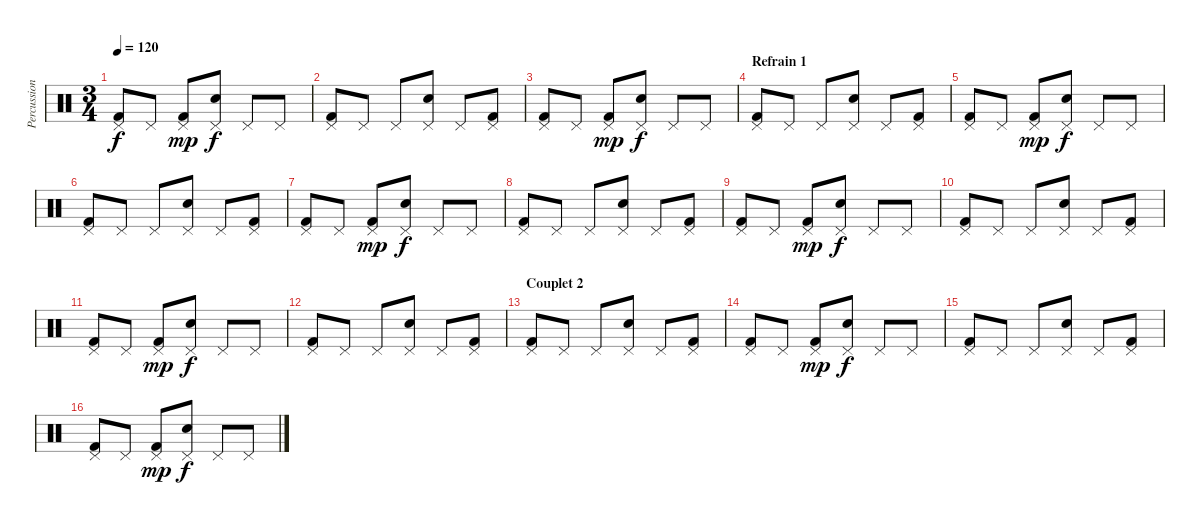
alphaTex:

\track ("Percussions" "Percussion") {instrument percussion}
\staff {score}
\articulation defaults
\ts (3 4)
\tempo 120
\clef neutral
\ks c
("Pedal Hi-Hat (hit)" "Kick (hit) 2").8{dy f} "Pedal Hi-Hat (hit)".8 ("Pedal Hi-Hat (hit)" "Kick (hit) 2").8{dy mp} ("Pedal Hi-Hat (hit)" "Electric Snare (hit)").8{dy f} "Pedal Hi-Hat (hit)".8 "Pedal Hi-Hat (hit)".8 |
("Pedal Hi-Hat (hit)" "Kick (hit) 2").8 "Pedal Hi-Hat (hit)".8 "Pedal Hi-Hat (hit)".8 ("Pedal Hi-Hat (hit)" "Electric Snare (hit)").8 "Pedal Hi-Hat (hit)".8 ("Pedal Hi-Hat (hit)" "Kick (hit) 2").8 |
("Pedal Hi-Hat (hit)" "Kick (hit) 2").8 "Pedal Hi-Hat (hit)".8 ("Pedal Hi-Hat (hit)" "Kick (hit) 2").8{dy mp} ("Pedal Hi-Hat (hit)" "Electric Snare (hit)").8{dy f} "Pedal Hi-Hat (hit)".8 "Pedal Hi-Hat (hit)".8 |
\section ("" "Refrain 1")
("Pedal Hi-Hat (hit)" "Kick (hit) 2").8 "Pedal Hi-Hat (hit)".8 "Pedal Hi-Hat (hit)".8 ("Pedal Hi-Hat (hit)" "Electric Snare (hit)").8 "Pedal Hi-Hat (hit)".8 ("Pedal Hi-Hat (hit)" "Kick (hit) 2").8 |
("Pedal Hi-Hat (hit)" "Kick (hit) 2").8 "Pedal Hi-Hat (hit)".8 ("Pedal Hi-Hat (hit)" "Kick (hit) 2").8{dy mp} ("Pedal Hi-Hat (hit)" "Electric Snare (hit)").8{dy f} "Pedal Hi-Hat (hit)".8 "Pedal Hi-Hat (hit)".8 |
("Pedal Hi-Hat (hit)" "Kick (hit) 2").8 "Pedal Hi-Hat (hit)".8 "Pedal Hi-Hat (hit)".8 ("Pedal Hi-Hat (hit)" "Electric Snare (hit)").8 "Pedal Hi-Hat (hit)".8 ("Pedal Hi-Hat (hit)" "Kick (hit) 2").8 |
("Pedal Hi-Hat (hit)" "Kick (hit) 2").8 "Pedal Hi-Hat (hit)".8 ("Pedal Hi-Hat (hit)" "Kick (hit) 2").8{dy mp} ("Pedal Hi-Hat (hit)" "Electric Snare (hit)").8{dy f} "Pedal Hi-Hat (hit)".8 "Pedal Hi-Hat (hit)".8 |
("Pedal Hi-Hat (hit)" "Kick (hit) 2").8 "Pedal Hi-Hat (hit)".8 "Pedal Hi-Hat (hit)".8 ("Pedal Hi-Hat (hit)" "Electric Snare (hit)").8 "Pedal Hi-Hat (hit)".8 ("Pedal Hi-Hat (hit)" "Kick (hit) 2").8 |
("Pedal Hi-Hat (hit)" "Kick (hit) 2").8 "Pedal Hi-Hat (hit)".8 ("Pedal Hi-Hat (hit)" "Kick (hit) 2").8{dy mp} ("Pedal Hi-Hat (hit)" "Electric Snare (hit)").8{dy f} "Pedal Hi-Hat (hit)".8 "Pedal Hi-Hat (hit)".8 |
("Pedal Hi-Hat (hit)" "Kick (hit) 2").8 "Pedal Hi-Hat (hit)".8 "Pedal Hi-Hat (hit)".8 ("Pedal Hi-Hat (hit)" "Electric Snare (hit)").8 "Pedal Hi-Hat (hit)".8 ("Pedal Hi-Hat (hit)" "Kick (hit) 2").8 |
("Pedal Hi-Hat (hit)" "Kick (hit) 2").8 "Pedal Hi-Hat (hit)".8 ("Pedal Hi-Hat (hit)" "Kick (hit) 2").8{dy mp} ("Pedal Hi-Hat (hit)" "Electric Snare (hit)").8{dy f} "Pedal Hi-Hat (hit)".8 "Pedal Hi-Hat (hit)".8 |
("Pedal Hi-Hat (hit)" "Kick (hit) 2").8 "Pedal Hi-Hat (hit)".8 "Pedal Hi-Hat (hit)".8 ("Pedal Hi-Hat (hit)" "Electric Snare (hit)").8 "Pedal Hi-Hat (hit)".8 ("Pedal Hi-Hat (hit)" "Kick (hit) 2").8 |
\section ("" "Couplet 2")
("Pedal Hi-Hat (hit)" "Kick (hit) 2").8 "Pedal Hi-Hat (hit)".8 "Pedal Hi-Hat (hit)".8 ("Pedal Hi-Hat (hit)" "Electric Snare (hit)").8 "Pedal Hi-Hat (hit)".8 ("Pedal Hi-Hat (hit)" "Kick (hit) 2").8 |
("Pedal Hi-Hat (hit)" "Kick (hit) 2").8 "Pedal Hi-Hat (hit)".8 ("Pedal Hi-Hat (hit)" "Kick (hit) 2").8{dy mp} ("Pedal Hi-Hat (hit)" "Electric Snare (hit)").8{dy f} "Pedal Hi-Hat (hit)".8 "Pedal Hi-Hat (hit)".8 |
("Pedal Hi-Hat (hit)" "Kick (hit) 2").8 "Pedal Hi-Hat (hit)".8 "Pedal Hi-Hat (hit)".8 ("Pedal Hi-Hat (hit)" "Electric Snare (hit)").8 "Pedal Hi-Hat (hit)".8 ("Pedal Hi-Hat (hit)" "Kick (hit) 2").8 |
("Pedal Hi-Hat (hit)" "Kick (hit) 2").8 "Pedal Hi-Hat (hit)".8 ("Pedal Hi-Hat (hit)" "Kick (hit) 2").8{dy mp} ("Pedal Hi-Hat (hit)" "Electric Snare (hit)").8{dy f} "Pedal Hi-Hat (hit)".8 "Pedal Hi-Hat (hit)".8
